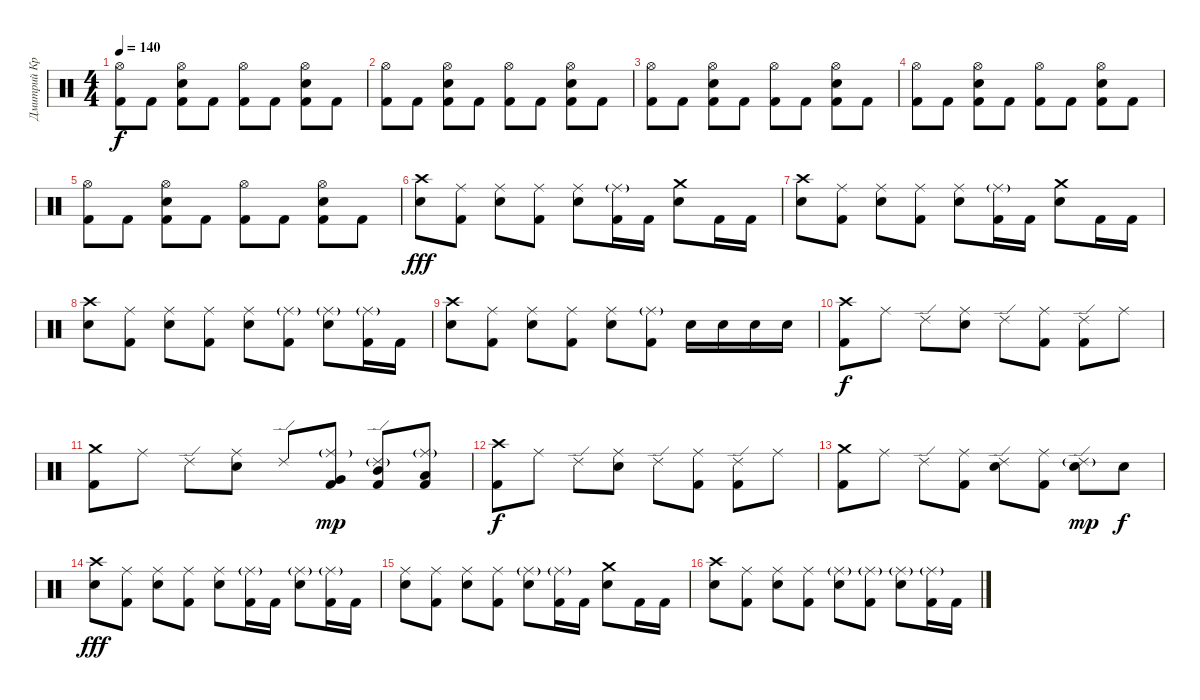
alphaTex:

\track ("Дмитрий Кривенков" "Дмитрий Кр") {instrument percussion}
\staff {score}
\articulation defaults
\ts (4 4)
\tempo 140
\clef neutral
\ks c
("Hi-Hat (open)" "Kick (hit) 2").8{dy f} "Kick (hit) 2".8 ("Hi-Hat (open)" "Electric Snare (hit)" "Kick (hit) 2").8 "Kick (hit) 2".8 ("Hi-Hat (open)" "Kick (hit) 2").8 "Kick (hit) 2".8 ("Hi-Hat (open)" "Electric Snare (hit)" "Kick (hit) 2").8 "Kick (hit) 2".8 |
("Hi-Hat (open)" "Kick (hit) 2").8 "Kick (hit) 2".8 ("Hi-Hat (open)" "Electric Snare (hit)" "Kick (hit) 2").8 "Kick (hit) 2".8 ("Hi-Hat (open)" "Kick (hit) 2").8 "Kick (hit) 2".8 ("Hi-Hat (open)" "Electric Snare (hit)" "Kick (hit) 2").8 "Kick (hit) 2".8 |
("Hi-Hat (open)" "Kick (hit) 2").8 "Kick (hit) 2".8 ("Hi-Hat (open)" "Electric Snare (hit)" "Kick (hit) 2").8 "Kick (hit) 2".8 ("Hi-Hat (open)" "Kick (hit) 2").8 "Kick (hit) 2".8 ("Hi-Hat (open)" "Electric Snare (hit)" "Kick (hit) 2").8 "Kick (hit) 2".8 |
("Hi-Hat (open)" "Kick (hit) 2").8 "Kick (hit) 2".8 ("Hi-Hat (open)" "Electric Snare (hit)" "Kick (hit) 2").8 "Kick (hit) 2".8 ("Hi-Hat (open)" "Kick (hit) 2").8 "Kick (hit) 2".8 ("Hi-Hat (open)" "Electric Snare (hit)" "Kick (hit) 2").8 "Kick (hit) 2".8 |
("Hi-Hat (open)" "Kick (hit) 2").8 "Kick (hit) 2".8 ("Hi-Hat (open)" "Electric Snare (hit)" "Kick (hit) 2").8 "Kick (hit) 2".8 ("Hi-Hat (open)" "Kick (hit) 2").8 "Kick (hit) 2".8 ("Hi-Hat (open)" "Electric Snare (hit)" "Kick (hit) 2").8 "Kick (hit) 2".8 |
("Crash high (hit)" "Electric Snare (hit)").8{dy fff} ("Ride (middle)" "Kick (hit) 2").8 ("Ride (middle)" "Electric Snare (hit)").8 ("Ride (middle)" "Kick (hit) 2").8 ("Ride (middle)" "Electric Snare (hit)").8 ("Ride (middle)"{g} "Kick (hit) 2").16 "Kick (hit) 2".16 ("Crash medium (hit)" "Electric Snare (hit)").8 "Kick (hit) 2".16 "Kick (hit) 2".16 |
("Crash high (hit)" "Electric Snare (hit)").8 ("Ride (middle)" "Kick (hit) 2").8 ("Ride (middle)" "Electric Snare (hit)").8 ("Ride (middle)" "Kick (hit) 2").8 ("Ride (middle)" "Electric Snare (hit)").8 ("Ride (middle)"{g} "Kick (hit) 2").16 "Kick (hit) 2".16 ("Crash medium (hit)" "Electric Snare (hit)").8 "Kick (hit) 2".16 "Kick (hit) 2".16 |
("Crash high (hit)" "Electric Snare (hit)").8 ("Ride (middle)" "Kick (hit) 2").8 ("Ride (middle)" "Electric Snare (hit)").8 ("Ride (middle)" "Kick (hit) 2").8 ("Ride (middle)" "Electric Snare (hit)").8 ("Ride (middle)"{g} "Kick (hit) 2").8 ("Ride (middle)"{g} "Electric Snare (hit)").8 ("Ride (middle)"{g} "Kick (hit) 2").16 "Kick (hit) 2".16 |
("Crash high (hit)" "Electric Snare (hit)").8 ("Ride (middle)" "Kick (hit) 2").8 ("Ride (middle)" "Electric Snare (hit)").8 ("Ride (middle)" "Kick (hit) 2").8 ("Ride (middle)" "Electric Snare (hit)").8 ("Ride (middle)"{g} "Kick (hit) 2").8 "Electric Snare (hit)".16 "Electric Snare (hit)".16 "Electric Snare (hit)".16 "Electric Snare (hit)".16 |
("Crash high (hit)" "Kick (hit) 2").8{dy f} "Ride (middle)".8 "Ride (edge) 2".8 ("Ride (middle)" "Electric Snare (hit)").8 "Ride (edge) 2".8 ("Ride (middle)" "Kick (hit) 2").8 ("Ride (edge) 2" "Kick (hit) 2").8 "Ride (middle)".8 |
("Crash medium (hit)" "Kick (hit) 2").8 "Ride (middle)".8 "Ride (edge) 2".8 ("Ride (middle)" "Electric Snare (hit)").8 "Ride (edge) 2".8 ("Ride (middle)"{g} "Very Low Tom (hit)" "Kick (hit) 2").8{dy mp} ("Ride (edge) 2"{g} "Mid Tom (hit)" "Kick (hit) 2").8 ("Ride (middle)"{g} "Low Tom (hit)" "Kick (hit) 2").8 |
("Crash high (hit)" "Kick (hit) 2").8{dy f} "Ride (middle)".8 "Ride (edge) 2".8 ("Ride (middle)" "Electric Snare (hit)").8 "Ride (edge) 2".8 ("Ride (middle)" "Kick (hit) 2").8 ("Ride (edge) 2" "Kick (hit) 2").8 "Ride (middle)".8 |
("Crash medium (hit)" "Kick (hit) 2").8 "Ride (middle)".8 "Ride (edge) 2".8 ("Ride (middle)" "Kick (hit) 2").8 ("Ride (edge) 2" "Electric Snare (hit)").8 ("Ride (middle)" "Kick (hit) 2").8 ("Ride (edge) 2"{g} "Electric Snare (hit)").8{dy mp} "Electric Snare (hit)".8{dy f} |
("Crash high (hit)" "Electric Snare (hit)").8{dy fff} ("Ride (middle)" "Kick (hit) 2").8 ("Ride (middle)" "Electric Snare (hit)").8 ("Ride (middle)" "Kick (hit) 2").8 ("Ride (middle)" "Electric Snare (hit)").8 ("Ride (middle)"{g} "Kick (hit) 2").16 "Kick (hit) 2".16 ("Ride (middle)"{g} "Electric Snare (hit)").8 ("Ride (middle)"{g} "Kick (hit) 2").16 "Kick (hit) 2".16 |
("Ride (middle)" "Electric Snare (hit)").8 ("Ride (middle)" "Kick (hit) 2").8 ("Ride (middle)" "Electric Snare (hit)").8 ("Ride (middle)" "Kick (hit) 2").8 ("Ride (middle)"{g} "Electric Snare (hit)").8 ("Ride (middle)"{g} "Kick (hit) 2").16 "Kick (hit) 2".16 ("Crash medium (hit)" "Electric Snare (hit)").8 "Kick (hit) 2".16 "Kick (hit) 2".16 |
("Crash high (hit)" "Electric Snare (hit)").8 ("Ride (middle)" "Kick (hit) 2").8 ("Ride (middle)" "Electric Snare (hit)").8 ("Ride (middle)" "Kick (hit) 2").8 ("Ride (middle)"{g} "Electric Snare (hit)").8 ("Ride (middle)"{g} "Kick (hit) 2").8 ("Ride (middle)"{g} "Electric Snare (hit)").8 ("Ride (middle)"{g} "Kick (hit) 2").16 "Kick (hit) 2".16
